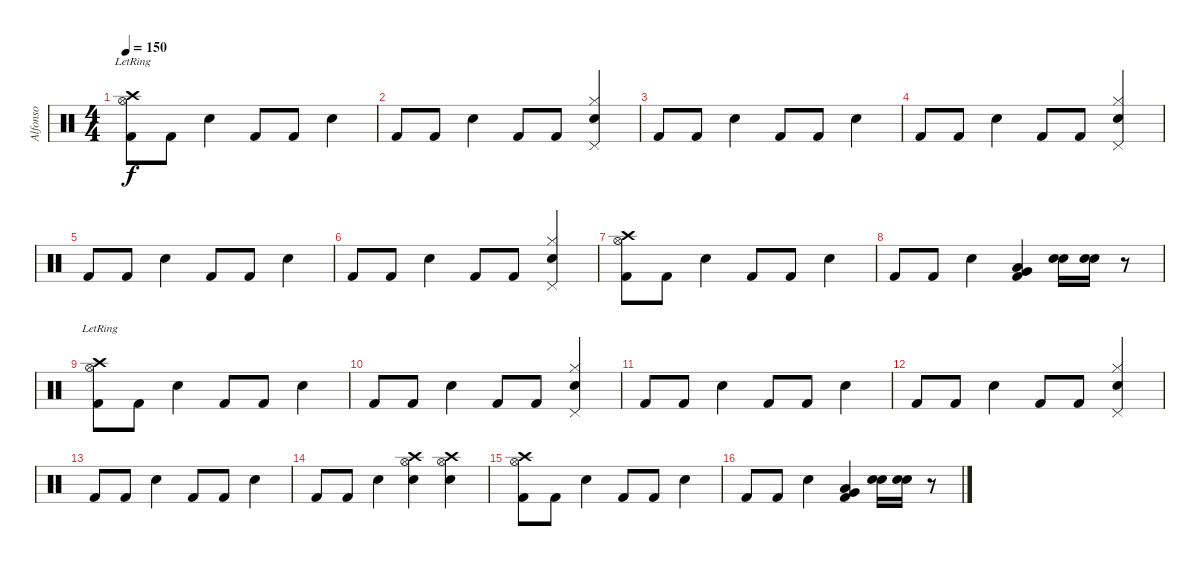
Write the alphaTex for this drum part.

\track ("Alfonso" "Alfonso") {instrument percussion}
\staff {score}
\articulation defaults
\ts (4 4)
\tempo 150
\clef neutral
\ks c
("Hi-Hat (open)"{lr} "Crash high (hit)"{lr} "Kick (hit) 2"{lr}).8{dy f} "Kick (hit) 2".8 "Electric Snare (hit)".4 "Kick (hit) 2".8 "Kick (hit) 2".8 "Electric Snare (hit)".4 |
"Kick (hit) 2".8 "Kick (hit) 2".8 "Electric Snare (hit)".4 "Kick (hit) 2".8 "Kick (hit) 2".8 ("Hi-Hat (closed)" "Pedal Hi-Hat (hit)" "Electric Snare (hit)").4 |
"Kick (hit) 2".8 "Kick (hit) 2".8 "Electric Snare (hit)".4 "Kick (hit) 2".8 "Kick (hit) 2".8 "Electric Snare (hit)".4 |
"Kick (hit) 2".8 "Kick (hit) 2".8 "Electric Snare (hit)".4 "Kick (hit) 2".8 "Kick (hit) 2".8 ("Hi-Hat (closed)" "Pedal Hi-Hat (hit)" "Electric Snare (hit)").4 |
"Kick (hit) 2".8 "Kick (hit) 2".8 "Electric Snare (hit)".4 "Kick (hit) 2".8 "Kick (hit) 2".8 "Electric Snare (hit)".4 |
"Kick (hit) 2".8 "Kick (hit) 2".8 "Electric Snare (hit)".4 "Kick (hit) 2".8 "Kick (hit) 2".8 ("Pedal Hi-Hat (hit)" "Hi-Hat (closed)" "Electric Snare (hit)").4 |
("Crash high (hit)" "Hi-Hat (open)" "Kick (hit) 2").8 "Kick (hit) 2".8 "Electric Snare (hit)".4 "Kick (hit) 2".8 "Kick (hit) 2".8 "Electric Snare (hit)".4 |
"Kick (hit) 2".8 "Kick (hit) 2".8 "Electric Snare (hit)".4 ("Kick (hit) 2" "Very Low Tom (hit)" "Low Floor Tom (hit)").4 ("Snare (hit) 2" "Electric Snare (hit)").16 ("Snare (hit) 2" "Electric Snare (hit)").16 r.8 |
("Hi-Hat (open)"{lr} "Crash high (hit)"{lr} "Kick (hit) 2"{lr}).8 "Kick (hit) 2".8 "Electric Snare (hit)".4 "Kick (hit) 2".8 "Kick (hit) 2".8 "Electric Snare (hit)".4 |
"Kick (hit) 2".8 "Kick (hit) 2".8 "Electric Snare (hit)".4 "Kick (hit) 2".8 "Kick (hit) 2".8 ("Pedal Hi-Hat (hit)" "Hi-Hat (closed)" "Electric Snare (hit)").4 |
"Kick (hit) 2".8 "Kick (hit) 2".8 "Electric Snare (hit)".4 "Kick (hit) 2".8 "Kick (hit) 2".8 "Electric Snare (hit)".4 |
"Kick (hit) 2".8 "Kick (hit) 2".8 "Electric Snare (hit)".4 "Kick (hit) 2".8 "Kick (hit) 2".8 ("Pedal Hi-Hat (hit)" "Hi-Hat (closed)" "Electric Snare (hit)").4 |
"Kick (hit) 2".8 "Kick (hit) 2".8 "Electric Snare (hit)".4 "Kick (hit) 2".8 "Kick (hit) 2".8 "Electric Snare (hit)".4 |
"Kick (hit) 2".8 "Kick (hit) 2".8 "Electric Snare (hit)".4 ("Crash high (hit)" "Hi-Hat (open)" "Electric Snare (hit)").4 ("Crash high (hit)" "Hi-Hat (open)" "Electric Snare (hit)").4 |
("Crash high (hit)" "Hi-Hat (open)" "Kick (hit) 2").8 "Kick (hit) 2".8 "Electric Snare (hit)".4 "Kick (hit) 2".8 "Kick (hit) 2".8 "Electric Snare (hit)".4 |
"Kick (hit) 2".8 "Kick (hit) 2".8 "Electric Snare (hit)".4 ("Kick (hit) 2" "Very Low Tom (hit)" "Low Floor Tom (hit)").4 ("Snare (hit) 2" "Electric Snare (hit)").16 ("Snare (hit) 2" "Electric Snare (hit)").16 r.8
